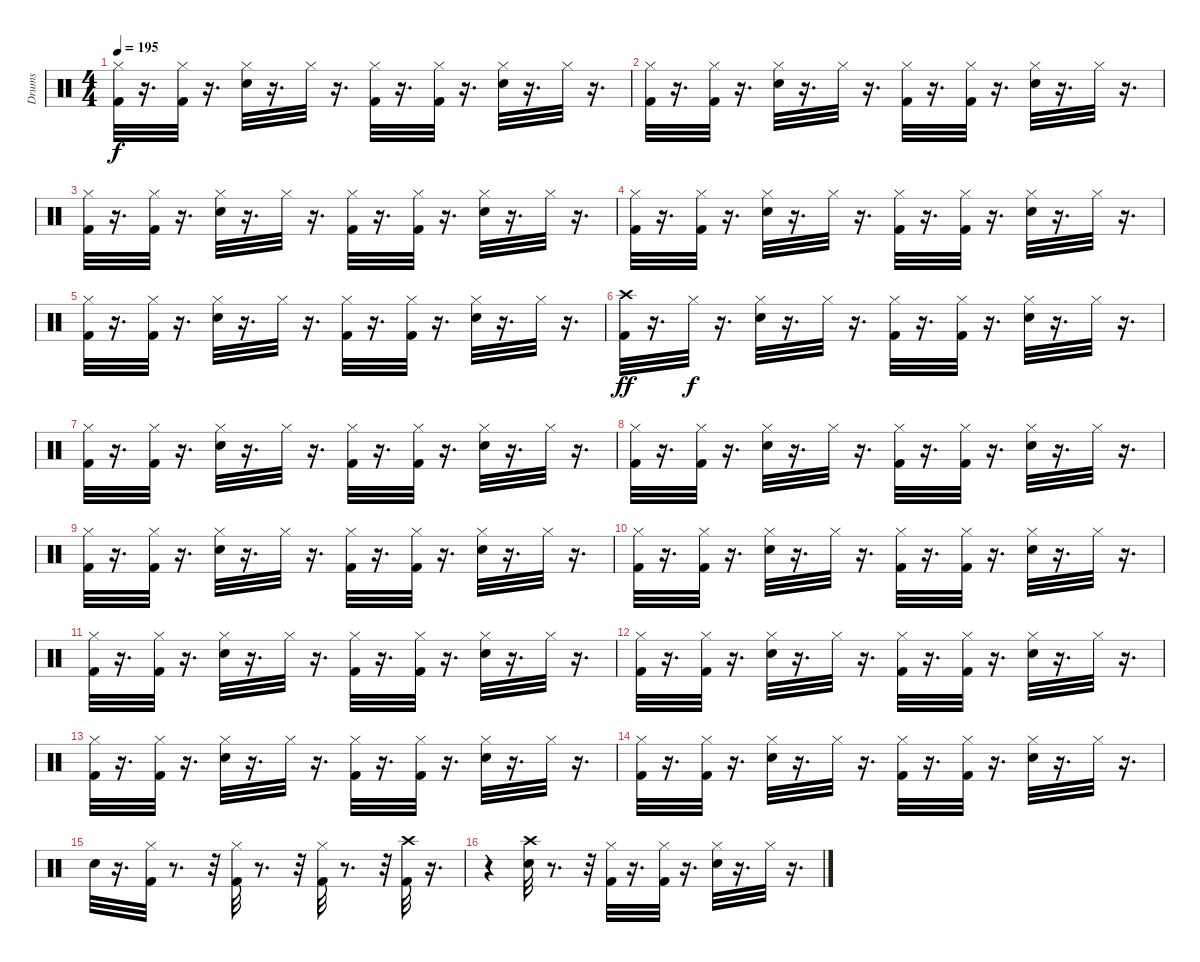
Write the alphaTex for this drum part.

\track ("Drums" "Drums") {instrument percussion}
\staff {score}
\articulation defaults
\ts (4 4)
\tempo 195
\clef neutral
\ks c
("Kick (hit) 2" "Hi-Hat (closed)").32{dy f} r.16{d} ("Kick (hit) 2" "Hi-Hat (closed)").32 r.16{d} ("Snare (hit) 2" "Hi-Hat (closed)").32 r.16{d} "Hi-Hat (closed)".32 r.16{d} ("Kick (hit) 2" "Hi-Hat (closed)").32 r.16{d} ("Hi-Hat (closed)" "Kick (hit) 2").32 r.16{d} ("Snare (hit) 2" "Hi-Hat (closed)").32 r.16{d} "Hi-Hat (closed)".32 r.16{d} |
("Kick (hit) 2" "Hi-Hat (closed)").32 r.16{d} ("Kick (hit) 2" "Hi-Hat (closed)").32 r.16{d} ("Snare (hit) 2" "Hi-Hat (closed)").32 r.16{d} "Hi-Hat (closed)".32 r.16{d} ("Kick (hit) 2" "Hi-Hat (closed)").32 r.16{d} ("Kick (hit) 2" "Hi-Hat (closed)").32 r.16{d} ("Snare (hit) 2" "Hi-Hat (closed)").32 r.16{d} "Hi-Hat (closed)".32 r.16{d} |
("Kick (hit) 2" "Hi-Hat (closed)").32 r.16{d} ("Kick (hit) 2" "Hi-Hat (closed)").32 r.16{d} ("Snare (hit) 2" "Hi-Hat (closed)").32 r.16{d} "Hi-Hat (closed)".32 r.16{d} ("Kick (hit) 2" "Hi-Hat (closed)").32 r.16{d} ("Kick (hit) 2" "Hi-Hat (closed)").32 r.16{d} ("Snare (hit) 2" "Hi-Hat (closed)").32 r.16{d} "Hi-Hat (closed)".32 r.16{d} |
("Kick (hit) 2" "Hi-Hat (closed)").32 r.16{d} ("Kick (hit) 2" "Hi-Hat (closed)").32 r.16{d} ("Snare (hit) 2" "Hi-Hat (closed)").32 r.16{d} "Hi-Hat (closed)".32 r.16{d} ("Kick (hit) 2" "Hi-Hat (closed)").32 r.16{d} ("Kick (hit) 2" "Hi-Hat (closed)").32 r.16{d} ("Snare (hit) 2" "Hi-Hat (closed)").32 r.16{d} "Hi-Hat (closed)".32 r.16{d} |
("Kick (hit) 2" "Hi-Hat (closed)").32 r.16{d} ("Kick (hit) 2" "Hi-Hat (closed)").32 r.16{d} ("Snare (hit) 2" "Hi-Hat (closed)").32 r.16{d} "Hi-Hat (closed)".32 r.16{d} ("Kick (hit) 2" "Hi-Hat (closed)").32 r.16{d} ("Kick (hit) 2" "Hi-Hat (closed)").32 r.16{d} ("Snare (hit) 2" "Hi-Hat (closed)").32 r.16{d} "Hi-Hat (closed)".32 r.16{d} |
("Kick (hit) 2" "Crash high (hit)").32{dy ff} r.16{d} "Hi-Hat (closed)".32{dy f} r.16{d} ("Snare (hit) 2" "Hi-Hat (closed)").32 r.16{d} "Hi-Hat (closed)".32 r.16{d} ("Kick (hit) 2" "Hi-Hat (closed)").32 r.16{d} ("Kick (hit) 2" "Hi-Hat (closed)").32 r.16{d} ("Snare (hit) 2" "Hi-Hat (closed)").32 r.16{d} "Hi-Hat (closed)".32 r.16{d} |
("Hi-Hat (closed)" "Kick (hit) 2").32 r.16{d} ("Hi-Hat (closed)" "Kick (hit) 2").32 r.16{d} ("Hi-Hat (closed)" "Snare (hit) 2").32 r.16{d} "Hi-Hat (closed)".32 r.16{d} ("Hi-Hat (closed)" "Kick (hit) 2").32 r.16{d} ("Hi-Hat (closed)" "Kick (hit) 2").32 r.16{d} ("Hi-Hat (closed)" "Snare (hit) 2").32 r.16{d} "Hi-Hat (closed)".32 r.16{d} |
("Hi-Hat (closed)" "Kick (hit) 2").32 r.16{d} ("Hi-Hat (closed)" "Kick (hit) 2").32 r.16{d} ("Hi-Hat (closed)" "Snare (hit) 2").32 r.16{d} "Hi-Hat (closed)".32 r.16{d} ("Hi-Hat (closed)" "Kick (hit) 2").32 r.16{d} ("Hi-Hat (closed)" "Kick (hit) 2").32 r.16{d} ("Hi-Hat (closed)" "Snare (hit) 2").32 r.16{d} "Hi-Hat (closed)".32 r.16{d} |
("Hi-Hat (closed)" "Kick (hit) 2").32 r.16{d} ("Hi-Hat (closed)" "Kick (hit) 2").32 r.16{d} ("Hi-Hat (closed)" "Snare (hit) 2").32 r.16{d} "Hi-Hat (closed)".32 r.16{d} ("Hi-Hat (closed)" "Kick (hit) 2").32 r.16{d} ("Hi-Hat (closed)" "Kick (hit) 2").32 r.16{d} ("Hi-Hat (closed)" "Snare (hit) 2").32 r.16{d} "Hi-Hat (closed)".32 r.16{d} |
("Hi-Hat (closed)" "Kick (hit) 2").32 r.16{d} ("Hi-Hat (closed)" "Kick (hit) 2").32 r.16{d} ("Hi-Hat (closed)" "Snare (hit) 2").32 r.16{d} "Hi-Hat (closed)".32 r.16{d} ("Hi-Hat (closed)" "Kick (hit) 2").32 r.16{d} ("Hi-Hat (closed)" "Kick (hit) 2").32 r.16{d} ("Hi-Hat (closed)" "Snare (hit) 2").32 r.16{d} "Hi-Hat (closed)".32 r.16{d} |
("Hi-Hat (closed)" "Kick (hit) 2").32 r.16{d} ("Hi-Hat (closed)" "Kick (hit) 2").32 r.16{d} ("Hi-Hat (closed)" "Snare (hit) 2").32 r.16{d} "Hi-Hat (closed)".32 r.16{d} ("Hi-Hat (closed)" "Kick (hit) 2").32 r.16{d} ("Hi-Hat (closed)" "Kick (hit) 2").32 r.16{d} ("Hi-Hat (closed)" "Snare (hit) 2").32 r.16{d} "Hi-Hat (closed)".32 r.16{d} |
("Hi-Hat (closed)" "Kick (hit) 2").32 r.16{d} ("Hi-Hat (closed)" "Kick (hit) 2").32 r.16{d} ("Hi-Hat (closed)" "Snare (hit) 2").32 r.16{d} "Hi-Hat (closed)".32 r.16{d} ("Hi-Hat (closed)" "Kick (hit) 2").32 r.16{d} ("Hi-Hat (closed)" "Kick (hit) 2").32 r.16{d} ("Hi-Hat (closed)" "Snare (hit) 2").32 r.16{d} "Hi-Hat (closed)".32 r.16{d} |
("Hi-Hat (closed)" "Kick (hit) 2").32 r.16{d} ("Hi-Hat (closed)" "Kick (hit) 2").32 r.16{d} ("Hi-Hat (closed)" "Snare (hit) 2").32 r.16{d} "Hi-Hat (closed)".32 r.16{d} ("Hi-Hat (closed)" "Kick (hit) 2").32 r.16{d} ("Hi-Hat (closed)" "Kick (hit) 2").32 r.16{d} ("Hi-Hat (closed)" "Snare (hit) 2").32 r.16{d} "Hi-Hat (closed)".32 r.16{d} |
("Hi-Hat (closed)" "Kick (hit) 2").32 r.16{d} ("Hi-Hat (closed)" "Kick (hit) 2").32 r.16{d} ("Hi-Hat (closed)" "Snare (hit) 2").32 r.16{d} "Hi-Hat (closed)".32 r.16{d} ("Hi-Hat (closed)" "Kick (hit) 2").32 r.16{d} ("Hi-Hat (closed)" "Kick (hit) 2").32 r.16{d} ("Hi-Hat (closed)" "Snare (hit) 2").32 r.16{d} "Hi-Hat (closed)".32 r.16{d} |
"Snare (hit) 2".32 r.16{d} ("Hi-Hat (closed)" "Kick (hit) 2").32 r.8{d} r.32 ("Hi-Hat (closed)" "Kick (hit) 2").32 r.8{d} r.32 ("Hi-Hat (closed)" "Kick (hit) 2").32 r.8{d} r.32 ("Crash high (hit)" "Kick (hit) 2").32 r.16{d} |
r.4 ("Crash high (hit)" "Snare (hit) 2").32 r.8{d} r.32 ("Hi-Hat (closed)" "Kick (hit) 2").32 r.16{d} ("Hi-Hat (closed)" "Kick (hit) 2").32 r.16{d} ("Hi-Hat (closed)" "Snare (hit) 2").32 r.16{d} "Hi-Hat (closed)".32 r.16{d}
